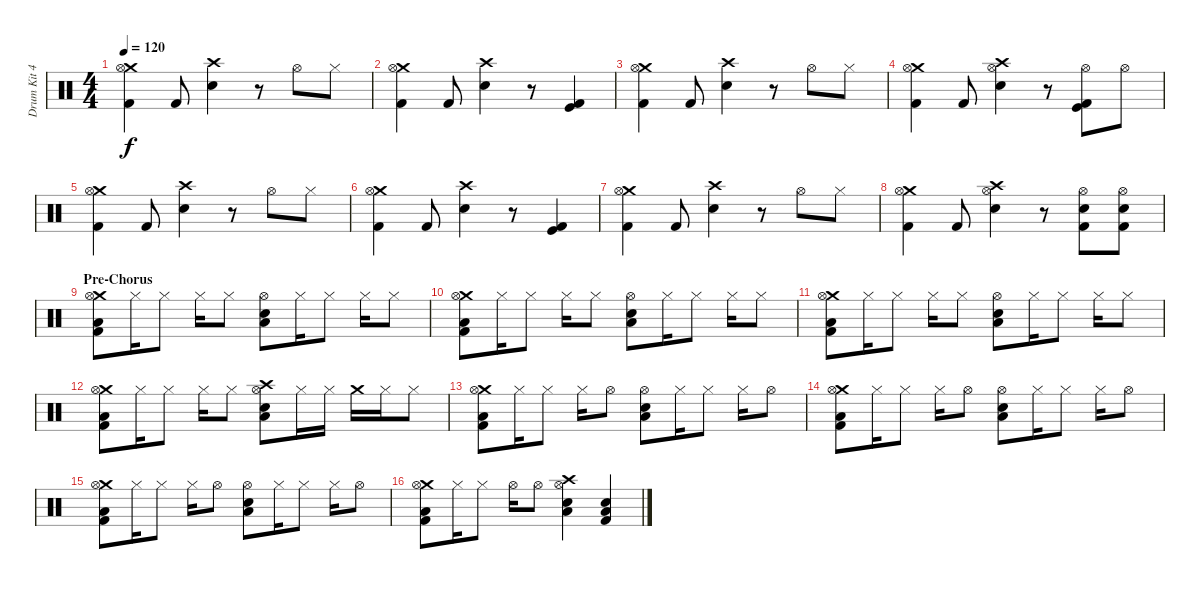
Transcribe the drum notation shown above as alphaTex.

\track ("Drum Kit 42" "Drum Kit 4") {instrument percussion}
\staff {score}
\articulation defaults
\ts (4 4)
\tempo 120
\clef neutral
\ks c
("Crash medium (hit)" "Hi-Hat (open)" "Kick (hit) 2").4{dy f} "Kick (hit) 2".8 ("Crash high (hit)" "Snare (hit) 2").4 r.8 "Hi-Hat (open)".8 "Hi-Hat (closed)".8 |
("Crash medium (hit)" "Hi-Hat (open)" "Kick (hit) 2").4 "Kick (hit) 2".8 ("Crash high (hit)" "Snare (hit) 2").4 r.8 ("Kick (hit)" "Kick (hit) 2").4 |
("Crash medium (hit)" "Hi-Hat (open)" "Kick (hit) 2").4 "Kick (hit) 2".8 ("Crash high (hit)" "Snare (hit) 2").4 r.8 "Hi-Hat (open)".8 "Hi-Hat (closed)".8 |
("Crash medium (hit)" "Hi-Hat (open)" "Kick (hit) 2").4 "Kick (hit) 2".8 ("Crash high (hit)" "Hi-Hat (open)" "Snare (hit) 2").4 r.8 ("Hi-Hat (open)" "Kick (hit)" "Kick (hit) 2").8 "Hi-Hat (open)".8 |
("Crash medium (hit)" "Hi-Hat (open)" "Kick (hit) 2").4 "Kick (hit) 2".8 ("Crash high (hit)" "Snare (hit) 2").4 r.8 "Hi-Hat (open)".8 "Hi-Hat (closed)".8 |
("Crash medium (hit)" "Hi-Hat (open)" "Kick (hit) 2").4 "Kick (hit) 2".8 ("Crash high (hit)" "Snare (hit) 2").4 r.8 ("Kick (hit)" "Kick (hit) 2").4 |
("Crash medium (hit)" "Hi-Hat (open)" "Kick (hit) 2").4 "Kick (hit) 2".8 ("Crash high (hit)" "Snare (hit) 2").4 r.8 "Hi-Hat (open)".8 "Hi-Hat (closed)".8 |
("Crash medium (hit)" "Hi-Hat (open)" "Kick (hit) 2").4 "Kick (hit) 2".8 ("Crash high (hit)" "Hi-Hat (open)" "Snare (hit) 2").4 r.8 ("Hi-Hat (open)" "Snare (hit) 2" "Kick (hit) 2").8 ("Hi-Hat (open)" "Snare (hit) 2" "Kick (hit) 2").8 |
\section ("" "Pre-Chorus")
("Crash medium (hit)" "Hi-Hat (open)" "Low Tom (hit)" "Kick (hit) 2").8 "Hi-Hat (closed)".16 "Hi-Hat (closed)".8 "Hi-Hat (closed)".16 "Hi-Hat (closed)".8 ("Hi-Hat (open)" "Low Tom (hit)" "Snare (hit) 2").8 "Hi-Hat (closed)".16 "Hi-Hat (closed)".8 "Hi-Hat (closed)".16 "Hi-Hat (closed)".8 |
("Crash medium (hit)" "Hi-Hat (open)" "Low Tom (hit)" "Kick (hit) 2").8 "Hi-Hat (closed)".16 "Hi-Hat (closed)".8 "Hi-Hat (closed)".16 "Hi-Hat (closed)".8 ("Hi-Hat (open)" "Low Tom (hit)" "Snare (hit) 2").8 "Hi-Hat (closed)".16 "Hi-Hat (closed)".8 "Hi-Hat (closed)".16 "Hi-Hat (closed)".8 |
("Crash medium (hit)" "Hi-Hat (open)" "Low Tom (hit)" "Kick (hit) 2").8 "Hi-Hat (closed)".16 "Hi-Hat (closed)".8 "Hi-Hat (closed)".16 "Hi-Hat (closed)".8 ("Hi-Hat (open)" "Low Tom (hit)" "Snare (hit) 2").8 "Hi-Hat (closed)".16 "Hi-Hat (closed)".8 "Hi-Hat (closed)".16 "Hi-Hat (closed)".8 |
("Crash medium (hit)" "Hi-Hat (open)" "Low Tom (hit)" "Kick (hit) 2").8 "Hi-Hat (closed)".16 "Hi-Hat (closed)".8 "Hi-Hat (closed)".16 "Hi-Hat (closed)".8 ("Crash high (hit)" "Hi-Hat (open)" "Low Tom (hit)" "Snare (hit) 2").8 "Hi-Hat (closed)".16 "Hi-Hat (closed)".16 "Crash medium (hit)".16 "Hi-Hat (closed)".16 "Hi-Hat (closed)".8 |
("Crash medium (hit)" "Hi-Hat (open)" "Low Tom (hit)" "Kick (hit) 2").8 "Hi-Hat (closed)".16 "Hi-Hat (closed)".8 "Hi-Hat (closed)".16 "Hi-Hat (open)".8 ("Hi-Hat (open)" "Low Tom (hit)" "Snare (hit) 2").8 "Hi-Hat (closed)".16 "Hi-Hat (closed)".8 "Hi-Hat (closed)".16 "Hi-Hat (open)".8 |
("Crash medium (hit)" "Hi-Hat (open)" "Low Tom (hit)" "Kick (hit) 2").8 "Hi-Hat (closed)".16 "Hi-Hat (closed)".8 "Hi-Hat (closed)".16 "Hi-Hat (open)".8 ("Hi-Hat (open)" "Low Tom (hit)" "Snare (hit) 2").8 "Hi-Hat (closed)".16 "Hi-Hat (closed)".8 "Hi-Hat (closed)".16 "Hi-Hat (open)".8 |
("Crash medium (hit)" "Hi-Hat (open)" "Low Tom (hit)" "Kick (hit) 2").8 "Hi-Hat (closed)".16 "Hi-Hat (closed)".8 "Hi-Hat (closed)".16 "Hi-Hat (open)".8 ("Hi-Hat (open)" "Low Tom (hit)" "Snare (hit) 2").8 "Hi-Hat (closed)".16 "Hi-Hat (closed)".8 "Hi-Hat (closed)".16 "Hi-Hat (open)".8 |
("Crash medium (hit)" "Hi-Hat (open)" "Low Tom (hit)" "Kick (hit) 2").8 "Hi-Hat (closed)".16 "Hi-Hat (closed)".8 "Hi-Hat (open)".16 "Hi-Hat (open)".8 ("Crash high (hit)" "Hi-Hat (open)" "Low Tom (hit)" "Snare (hit) 2").4 ("Snare (hit) 2" "Low Tom (hit)" "Kick (hit) 2").4
